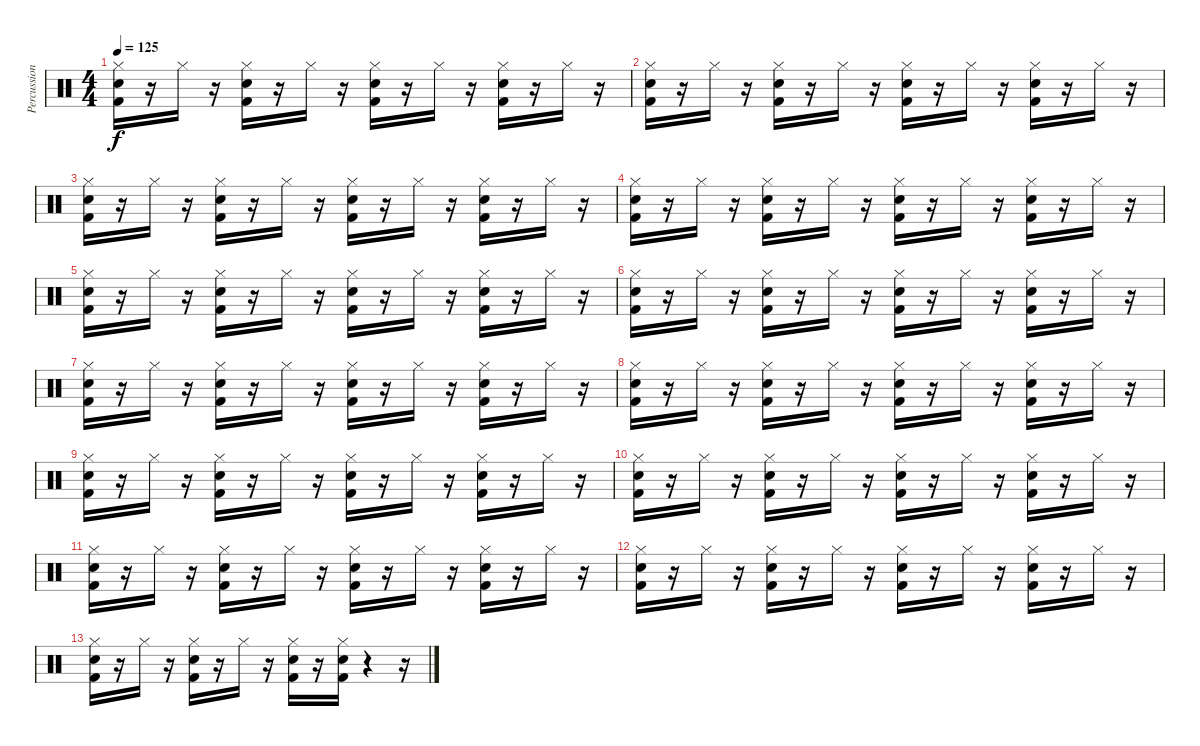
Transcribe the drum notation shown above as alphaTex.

\track ("Percussion" "Percussion") {instrument percussion}
\staff {score}
\articulation defaults
\ts (4 4)
\tempo 125
\clef neutral
\ks c
("Kick (hit) 2" "Snare (hit) 2" "Hi-Hat (closed)").16{dy f} r.16 "Hi-Hat (closed)".16 r.16 ("Kick (hit) 2" "Snare (hit) 2" "Hi-Hat (closed)").16 r.16 "Hi-Hat (closed)".16 r.16 ("Kick (hit) 2" "Snare (hit) 2" "Hi-Hat (closed)").16 r.16 "Hi-Hat (closed)".16 r.16 ("Kick (hit) 2" "Snare (hit) 2" "Hi-Hat (closed)").16 r.16 "Hi-Hat (closed)".16 r.16 |
("Kick (hit) 2" "Snare (hit) 2" "Hi-Hat (closed)").16 r.16 "Hi-Hat (closed)".16 r.16 ("Kick (hit) 2" "Snare (hit) 2" "Hi-Hat (closed)").16 r.16 "Hi-Hat (closed)".16 r.16 ("Kick (hit) 2" "Snare (hit) 2" "Hi-Hat (closed)").16 r.16 "Hi-Hat (closed)".16 r.16 ("Kick (hit) 2" "Snare (hit) 2" "Hi-Hat (closed)").16 r.16 "Hi-Hat (closed)".16 r.16 |
("Kick (hit) 2" "Snare (hit) 2" "Hi-Hat (closed)").16 r.16 "Hi-Hat (closed)".16 r.16 ("Kick (hit) 2" "Snare (hit) 2" "Hi-Hat (closed)").16 r.16 "Hi-Hat (closed)".16 r.16 ("Kick (hit) 2" "Snare (hit) 2" "Hi-Hat (closed)").16 r.16 "Hi-Hat (closed)".16 r.16 ("Kick (hit) 2" "Snare (hit) 2" "Hi-Hat (closed)").16 r.16 "Hi-Hat (closed)".16 r.16 |
("Kick (hit) 2" "Snare (hit) 2" "Hi-Hat (closed)").16 r.16 "Hi-Hat (closed)".16 r.16 ("Kick (hit) 2" "Snare (hit) 2" "Hi-Hat (closed)").16 r.16 "Hi-Hat (closed)".16 r.16 ("Kick (hit) 2" "Snare (hit) 2" "Hi-Hat (closed)").16 r.16 "Hi-Hat (closed)".16 r.16 ("Kick (hit) 2" "Snare (hit) 2" "Hi-Hat (closed)").16 r.16 "Hi-Hat (closed)".16 r.16 |
("Kick (hit) 2" "Snare (hit) 2" "Hi-Hat (closed)").16 r.16 "Hi-Hat (closed)".16 r.16 ("Kick (hit) 2" "Snare (hit) 2" "Hi-Hat (closed)").16 r.16 "Hi-Hat (closed)".16 r.16 ("Kick (hit) 2" "Snare (hit) 2" "Hi-Hat (closed)").16 r.16 "Hi-Hat (closed)".16 r.16 ("Kick (hit) 2" "Snare (hit) 2" "Hi-Hat (closed)").16 r.16 "Hi-Hat (closed)".16 r.16 |
("Kick (hit) 2" "Snare (hit) 2" "Hi-Hat (closed)").16 r.16 "Hi-Hat (closed)".16 r.16 ("Kick (hit) 2" "Snare (hit) 2" "Hi-Hat (closed)").16 r.16 "Hi-Hat (closed)".16 r.16 ("Kick (hit) 2" "Snare (hit) 2" "Hi-Hat (closed)").16 r.16 "Hi-Hat (closed)".16 r.16 ("Kick (hit) 2" "Snare (hit) 2" "Hi-Hat (closed)").16 r.16 "Hi-Hat (closed)".16 r.16 |
("Kick (hit) 2" "Snare (hit) 2" "Hi-Hat (closed)").16 r.16 "Hi-Hat (closed)".16 r.16 ("Kick (hit) 2" "Snare (hit) 2" "Hi-Hat (closed)").16 r.16 "Hi-Hat (closed)".16 r.16 ("Kick (hit) 2" "Snare (hit) 2" "Hi-Hat (closed)").16 r.16 "Hi-Hat (closed)".16 r.16 ("Kick (hit) 2" "Snare (hit) 2" "Hi-Hat (closed)").16 r.16 "Hi-Hat (closed)".16 r.16 |
("Kick (hit) 2" "Snare (hit) 2" "Hi-Hat (closed)").16 r.16 "Hi-Hat (closed)".16 r.16 ("Kick (hit) 2" "Snare (hit) 2" "Hi-Hat (closed)").16 r.16 "Hi-Hat (closed)".16 r.16 ("Kick (hit) 2" "Snare (hit) 2" "Hi-Hat (closed)").16 r.16 "Hi-Hat (closed)".16 r.16 ("Kick (hit) 2" "Snare (hit) 2" "Hi-Hat (closed)").16 r.16 "Hi-Hat (closed)".16 r.16 |
("Kick (hit) 2" "Snare (hit) 2" "Hi-Hat (closed)").16 r.16 "Hi-Hat (closed)".16 r.16 ("Kick (hit) 2" "Snare (hit) 2" "Hi-Hat (closed)").16 r.16 "Hi-Hat (closed)".16 r.16 ("Kick (hit) 2" "Snare (hit) 2" "Hi-Hat (closed)").16 r.16 "Hi-Hat (closed)".16 r.16 ("Kick (hit) 2" "Snare (hit) 2" "Hi-Hat (closed)").16 r.16 "Hi-Hat (closed)".16 r.16 |
("Kick (hit) 2" "Snare (hit) 2" "Hi-Hat (closed)").16 r.16 "Hi-Hat (closed)".16 r.16 ("Kick (hit) 2" "Snare (hit) 2" "Hi-Hat (closed)").16 r.16 "Hi-Hat (closed)".16 r.16 ("Kick (hit) 2" "Snare (hit) 2" "Hi-Hat (closed)").16 r.16 "Hi-Hat (closed)".16 r.16 ("Kick (hit) 2" "Snare (hit) 2" "Hi-Hat (closed)").16 r.16 "Hi-Hat (closed)".16 r.16 |
("Kick (hit) 2" "Snare (hit) 2" "Hi-Hat (closed)").16 r.16 "Hi-Hat (closed)".16 r.16 ("Kick (hit) 2" "Snare (hit) 2" "Hi-Hat (closed)").16 r.16 "Hi-Hat (closed)".16 r.16 ("Kick (hit) 2" "Snare (hit) 2" "Hi-Hat (closed)").16 r.16 "Hi-Hat (closed)".16 r.16 ("Kick (hit) 2" "Snare (hit) 2" "Hi-Hat (closed)").16 r.16 "Hi-Hat (closed)".16 r.16 |
("Kick (hit) 2" "Snare (hit) 2" "Hi-Hat (closed)").16 r.16 "Hi-Hat (closed)".16 r.16 ("Kick (hit) 2" "Snare (hit) 2" "Hi-Hat (closed)").16 r.16 "Hi-Hat (closed)".16 r.16 ("Kick (hit) 2" "Snare (hit) 2" "Hi-Hat (closed)").16 r.16 "Hi-Hat (closed)".16 r.16 ("Kick (hit) 2" "Snare (hit) 2" "Hi-Hat (closed)").16 r.16 "Hi-Hat (closed)".16 r.16 |
("Kick (hit) 2" "Snare (hit) 2" "Hi-Hat (closed)").16 r.16 "Hi-Hat (closed)".16 r.16 ("Kick (hit) 2" "Snare (hit) 2" "Hi-Hat (closed)").16 r.16 "Hi-Hat (closed)".16 r.16 ("Kick (hit) 2" "Snare (hit) 2" "Hi-Hat (closed)").16 r.16 ("Kick (hit) 2" "Snare (hit) 2" "Hi-Hat (closed)").16 r.4 r.16
